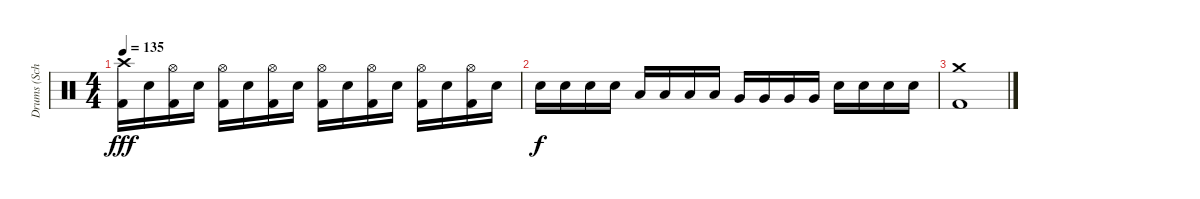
\track ("Drums (Schill)" "Drums (Sch") {instrument percussion}
\staff {score}
\articulation defaults
\ts (4 4)
\tempo 135
\clef neutral
\ks c
("Crash high (hit)" "Kick (hit) 2").16{dy fff} "Electric Snare (hit)".16 ("Hi-Hat (open)" "Kick (hit) 2").16 "Electric Snare (hit)".16 ("Hi-Hat (open)" "Kick (hit) 2").16 "Electric Snare (hit)".16 ("Hi-Hat (open)" "Kick (hit) 2").16 "Electric Snare (hit)".16 ("Hi-Hat (open)" "Kick (hit) 2").16 "Electric Snare (hit)".16 ("Hi-Hat (open)" "Kick (hit) 2").16 "Electric Snare (hit)".16 ("Hi-Hat (open)" "Kick (hit) 2").16 "Electric Snare (hit)".16 ("Hi-Hat (open)" "Kick (hit) 2").16 "Electric Snare (hit)".16 |
"Electric Snare (hit)".16{dy f} "Electric Snare (hit)".16 "Electric Snare (hit)".16 "Electric Snare (hit)".16 "Low Tom (hit)".16 "Low Tom (hit)".16 "Low Tom (hit)".16 "Low Tom (hit)".16 "Very Low Tom (hit)".16 "Very Low Tom (hit)".16 "Very Low Tom (hit)".16 "Very Low Tom (hit)".16 "Electric Snare (hit)".16 "Electric Snare (hit)".16 "Electric Snare (hit)".16 "Electric Snare (hit)".16 |
("Crash medium (hit)" "Kick (hit) 2").1
